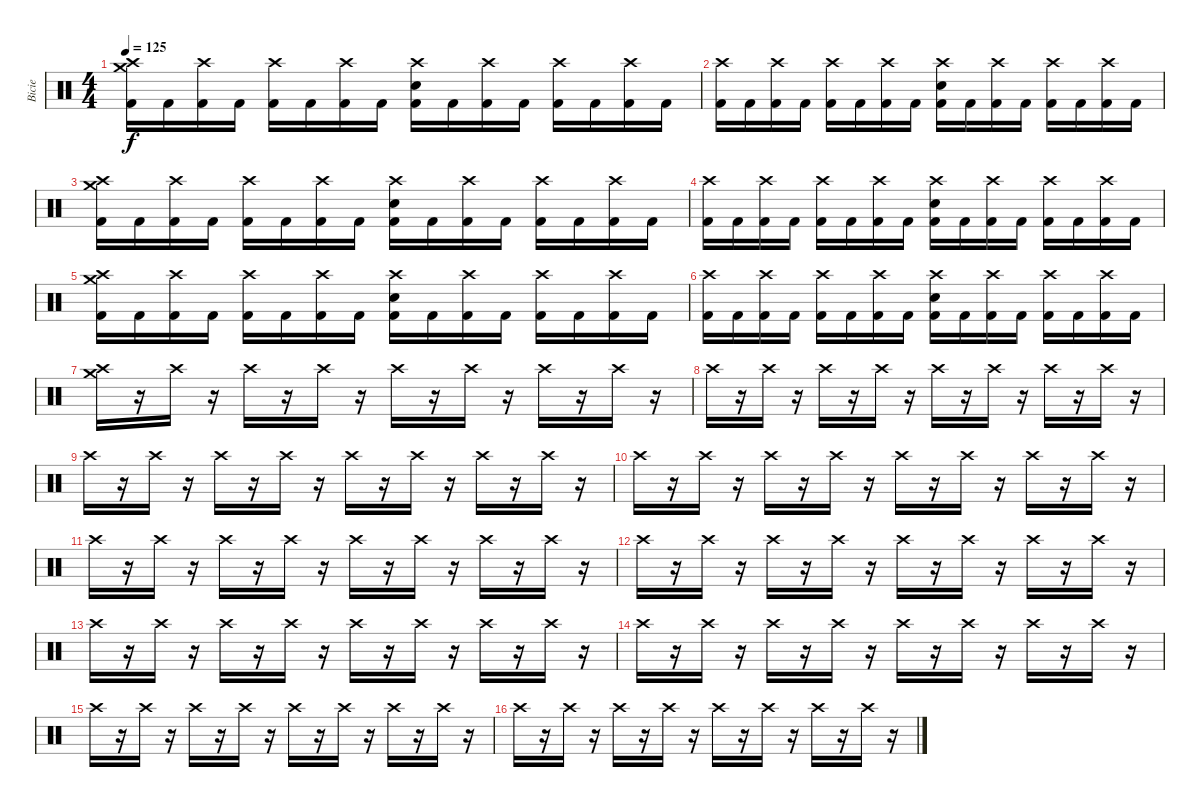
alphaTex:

\track ("Bicie" "Bicie") {instrument percussion}
\staff {score}
\articulation defaults
\ts (4 4)
\tempo 125
\clef neutral
\ks c
("Crash high (hit)" "Crash medium (hit)" "Kick (hit) 2").16{dy f} "Kick (hit) 2".16 ("Crash high (hit)" "Kick (hit) 2").16 "Kick (hit) 2".16 ("Crash high (hit)" "Kick (hit) 2").16 "Kick (hit) 2".16 ("Crash high (hit)" "Kick (hit) 2").16 "Kick (hit) 2".16 ("Crash high (hit)" "Snare (hit) 2" "Kick (hit) 2").16 "Kick (hit) 2".16 ("Crash high (hit)" "Kick (hit) 2").16 "Kick (hit) 2".16 ("Crash high (hit)" "Kick (hit) 2").16 "Kick (hit) 2".16 ("Crash high (hit)" "Kick (hit) 2").16 "Kick (hit) 2".16 |
("Crash high (hit)" "Kick (hit) 2").16 "Kick (hit) 2".16 ("Crash high (hit)" "Kick (hit) 2").16 "Kick (hit) 2".16 ("Crash high (hit)" "Kick (hit) 2").16 "Kick (hit) 2".16 ("Crash high (hit)" "Kick (hit) 2").16 "Kick (hit) 2".16 ("Crash high (hit)" "Snare (hit) 2" "Kick (hit) 2").16 "Kick (hit) 2".16 ("Crash high (hit)" "Kick (hit) 2").16 "Kick (hit) 2".16 ("Crash high (hit)" "Kick (hit) 2").16 "Kick (hit) 2".16 ("Crash high (hit)" "Kick (hit) 2").16 "Kick (hit) 2".16 |
("Crash high (hit)" "Crash medium (hit)" "Kick (hit) 2").16 "Kick (hit) 2".16 ("Crash high (hit)" "Kick (hit) 2").16 "Kick (hit) 2".16 ("Crash high (hit)" "Kick (hit) 2").16 "Kick (hit) 2".16 ("Crash high (hit)" "Kick (hit) 2").16 "Kick (hit) 2".16 ("Crash high (hit)" "Snare (hit) 2" "Kick (hit) 2").16 "Kick (hit) 2".16 ("Crash high (hit)" "Kick (hit) 2").16 "Kick (hit) 2".16 ("Crash high (hit)" "Kick (hit) 2").16 "Kick (hit) 2".16 ("Crash high (hit)" "Kick (hit) 2").16 "Kick (hit) 2".16 |
("Crash high (hit)" "Kick (hit) 2").16 "Kick (hit) 2".16 ("Crash high (hit)" "Kick (hit) 2").16 "Kick (hit) 2".16 ("Crash high (hit)" "Kick (hit) 2").16 "Kick (hit) 2".16 ("Crash high (hit)" "Kick (hit) 2").16 "Kick (hit) 2".16 ("Crash high (hit)" "Snare (hit) 2" "Kick (hit) 2").16 "Kick (hit) 2".16 ("Crash high (hit)" "Kick (hit) 2").16 "Kick (hit) 2".16 ("Crash high (hit)" "Kick (hit) 2").16 "Kick (hit) 2".16 ("Crash high (hit)" "Kick (hit) 2").16 "Kick (hit) 2".16 |
("Crash high (hit)" "Crash medium (hit)" "Kick (hit) 2").16 "Kick (hit) 2".16 ("Crash high (hit)" "Kick (hit) 2").16 "Kick (hit) 2".16 ("Crash high (hit)" "Kick (hit) 2").16 "Kick (hit) 2".16 ("Crash high (hit)" "Kick (hit) 2").16 "Kick (hit) 2".16 ("Crash high (hit)" "Snare (hit) 2" "Kick (hit) 2").16 "Kick (hit) 2".16 ("Crash high (hit)" "Kick (hit) 2").16 "Kick (hit) 2".16 ("Crash high (hit)" "Kick (hit) 2").16 "Kick (hit) 2".16 ("Crash high (hit)" "Kick (hit) 2").16 "Kick (hit) 2".16 |
("Crash high (hit)" "Kick (hit) 2").16 "Kick (hit) 2".16 ("Crash high (hit)" "Kick (hit) 2").16 "Kick (hit) 2".16 ("Crash high (hit)" "Kick (hit) 2").16 "Kick (hit) 2".16 ("Crash high (hit)" "Kick (hit) 2").16 "Kick (hit) 2".16 ("Crash high (hit)" "Snare (hit) 2" "Kick (hit) 2").16 "Kick (hit) 2".16 ("Crash high (hit)" "Kick (hit) 2").16 "Kick (hit) 2".16 ("Crash high (hit)" "Kick (hit) 2").16 "Kick (hit) 2".16 ("Crash high (hit)" "Kick (hit) 2").16 "Kick (hit) 2".16 |
("Crash high (hit)" "Crash medium (hit)").16 r.16 "Crash high (hit)".16 r.16 "Crash high (hit)".16 r.16 "Crash high (hit)".16 r.16 "Crash high (hit)".16 r.16 "Crash high (hit)".16 r.16 "Crash high (hit)".16 r.16 "Crash high (hit)".16 r.16 |
"Crash high (hit)".16 r.16 "Crash high (hit)".16 r.16 "Crash high (hit)".16 r.16 "Crash high (hit)".16 r.16 "Crash high (hit)".16 r.16 "Crash high (hit)".16 r.16 "Crash high (hit)".16 r.16 "Crash high (hit)".16 r.16 |
"Crash high (hit)".16 r.16 "Crash high (hit)".16 r.16 "Crash high (hit)".16 r.16 "Crash high (hit)".16 r.16 "Crash high (hit)".16 r.16 "Crash high (hit)".16 r.16 "Crash high (hit)".16 r.16 "Crash high (hit)".16 r.16 |
"Crash high (hit)".16 r.16 "Crash high (hit)".16 r.16 "Crash high (hit)".16 r.16 "Crash high (hit)".16 r.16 "Crash high (hit)".16 r.16 "Crash high (hit)".16 r.16 "Crash high (hit)".16 r.16 "Crash high (hit)".16 r.16 |
"Crash high (hit)".16 r.16 "Crash high (hit)".16 r.16 "Crash high (hit)".16 r.16 "Crash high (hit)".16 r.16 "Crash high (hit)".16 r.16 "Crash high (hit)".16 r.16 "Crash high (hit)".16 r.16 "Crash high (hit)".16 r.16 |
"Crash high (hit)".16 r.16 "Crash high (hit)".16 r.16 "Crash high (hit)".16 r.16 "Crash high (hit)".16 r.16 "Crash high (hit)".16 r.16 "Crash high (hit)".16 r.16 "Crash high (hit)".16 r.16 "Crash high (hit)".16 r.16 |
"Crash high (hit)".16 r.16 "Crash high (hit)".16 r.16 "Crash high (hit)".16 r.16 "Crash high (hit)".16 r.16 "Crash high (hit)".16 r.16 "Crash high (hit)".16 r.16 "Crash high (hit)".16 r.16 "Crash high (hit)".16 r.16 |
"Crash high (hit)".16 r.16 "Crash high (hit)".16 r.16 "Crash high (hit)".16 r.16 "Crash high (hit)".16 r.16 "Crash high (hit)".16 r.16 "Crash high (hit)".16 r.16 "Crash high (hit)".16 r.16 "Crash high (hit)".16 r.16 |
"Crash high (hit)".16{volume 5} r.16 "Crash high (hit)".16 r.16 "Crash high (hit)".16 r.16 "Crash high (hit)".16 r.16 "Crash high (hit)".16 r.16 "Crash high (hit)".16 r.16 "Crash high (hit)".16 r.16 "Crash high (hit)".16 r.16 |
"Crash high (hit)".16 r.16 "Crash high (hit)".16 r.16 "Crash high (hit)".16 r.16 "Crash high (hit)".16 r.16 "Crash high (hit)".16 r.16 "Crash high (hit)".16 r.16 "Crash high (hit)".16 r.16 "Crash high (hit)".16 r.16
